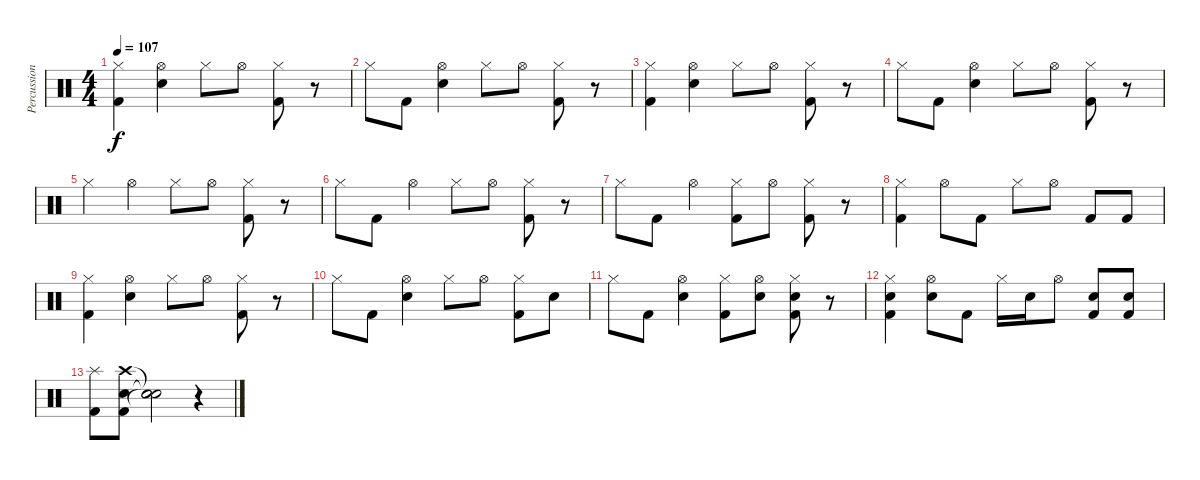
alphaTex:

\track ("Percussion" "Percussion") {instrument percussion}
\staff {score}
\articulation defaults
\ts (4 4)
\tempo 107
\clef neutral
\ks c
("Hi-Hat (closed)" "Kick (hit) 2").4{dy f} ("Hi-Hat (open)" "Snare (hit) 2").4 "Hi-Hat (closed)".8 "Hi-Hat (open)".8 ("Hi-Hat (closed)" "Kick (hit) 2").8 r.8 |
"Hi-Hat (closed)".8 "Kick (hit) 2".8 ("Hi-Hat (open)" "Snare (hit) 2").4 "Hi-Hat (closed)".8 "Hi-Hat (open)".8 ("Hi-Hat (closed)" "Kick (hit) 2").8 r.8 |
("Hi-Hat (closed)" "Kick (hit) 2").4 ("Hi-Hat (open)" "Snare (hit) 2").4 "Hi-Hat (closed)".8 "Hi-Hat (open)".8 ("Hi-Hat (closed)" "Kick (hit) 2").8 r.8 |
"Hi-Hat (closed)".8 "Kick (hit) 2".8 ("Hi-Hat (open)" "Snare (hit) 2").4 "Hi-Hat (closed)".8 "Hi-Hat (open)".8 ("Hi-Hat (closed)" "Kick (hit) 2").8 r.8 |
"Hi-Hat (closed)".4 "Hi-Hat (open)".4 "Hi-Hat (closed)".8 "Hi-Hat (open)".8 ("Hi-Hat (closed)" "Kick (hit) 2").8 r.8 |
"Hi-Hat (closed)".8 "Kick (hit) 2".8 "Hi-Hat (open)".4 "Hi-Hat (closed)".8 "Hi-Hat (open)".8 ("Hi-Hat (closed)" "Kick (hit) 2").8 r.8 |
"Hi-Hat (closed)".8 "Kick (hit) 2".8 "Hi-Hat (open)".4 ("Hi-Hat (closed)" "Kick (hit) 2").8 "Hi-Hat (open)".8 ("Hi-Hat (closed)" "Kick (hit) 2").8 r.8 |
("Hi-Hat (closed)" "Kick (hit) 2").4 "Hi-Hat (open)".8 "Kick (hit) 2".8 "Hi-Hat (closed)".8 "Hi-Hat (open)".8 "Kick (hit) 2".8 "Kick (hit) 2".8 |
("Hi-Hat (closed)" "Kick (hit) 2").4 ("Hi-Hat (open)" "Snare (hit) 2").4 "Hi-Hat (closed)".8 "Hi-Hat (open)".8 ("Hi-Hat (closed)" "Kick (hit) 2").8 r.8 |
"Hi-Hat (closed)".8 "Kick (hit) 2".8 ("Hi-Hat (open)" "Snare (hit) 2").4 "Hi-Hat (closed)".8 "Hi-Hat (open)".8 ("Hi-Hat (closed)" "Kick (hit) 2").8 "Snare (hit) 2".8 |
"Hi-Hat (closed)".8 "Kick (hit) 2".8 ("Hi-Hat (open)" "Snare (hit) 2").4 ("Hi-Hat (closed)" "Kick (hit) 2").8 ("Hi-Hat (open)" "Snare (hit) 2").8 ("Hi-Hat (closed)" "Snare (hit) 2" "Kick (hit) 2").8 r.8 |
("Hi-Hat (closed)" "Snare (hit) 2" "Kick (hit) 2").4 ("Hi-Hat (open)" "Snare (hit) 2").8 "Kick (hit) 2".8 "Hi-Hat (closed)".16 "Snare (hit) 2".16 "Hi-Hat (open)".8 ("Snare (hit) 2" "Kick (hit) 2").8 ("Snare (hit) 2" "Kick (hit) 2").8 |
("Splash (hit)" "Kick (hit) 2").8 ("Crash high (hit)" "Snare (hit) 2" "Kick (hit) 2").8 ("Snare (hit)"{t} "Snare (hit)"{t} "Snare (hit)"{t}).2 r.4
